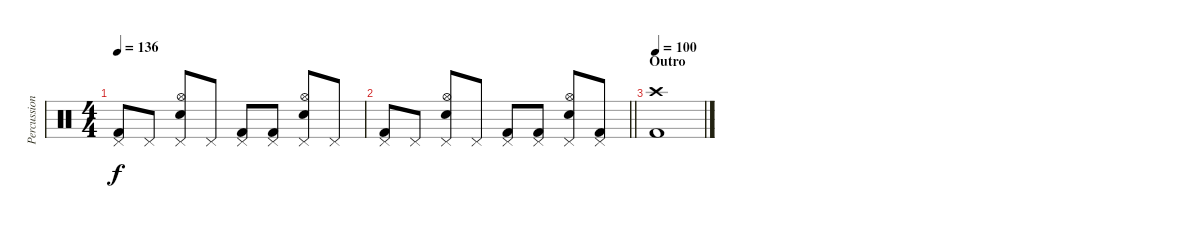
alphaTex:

\track ("Percussion" "Percussion") {instrument percussion}
\staff {score}
\articulation defaults
\ts (4 4)
\tempo 136
\clef neutral
\ks c
("Pedal Hi-Hat (hit)" "Kick (hit) 2").8{dy f} "Pedal Hi-Hat (hit)".8 ("Hi-Hat (open)" "Pedal Hi-Hat (hit)" "Snare (hit) 2").8 "Pedal Hi-Hat (hit)".8 ("Pedal Hi-Hat (hit)" "Kick (hit) 2").8 ("Pedal Hi-Hat (hit)" "Kick (hit) 2").8 ("Hi-Hat (open)" "Pedal Hi-Hat (hit)" "Snare (hit) 2").8 "Pedal Hi-Hat (hit)".8 |
\barLineRight lightlight
("Pedal Hi-Hat (hit)" "Kick (hit) 2").8 "Pedal Hi-Hat (hit)".8 ("Hi-Hat (open)" "Pedal Hi-Hat (hit)" "Snare (hit) 2").8 "Pedal Hi-Hat (hit)".8 ("Pedal Hi-Hat (hit)" "Kick (hit) 2").8 ("Pedal Hi-Hat (hit)" "Kick (hit) 2").8 ("Hi-Hat (open)" "Pedal Hi-Hat (hit)" "Snare (hit) 2").8 ("Pedal Hi-Hat (hit)" "Kick (hit) 2").8 |
\section ("" "Outro")
\tempo 100
("Crash high (hit)" "Kick (hit) 2").1
